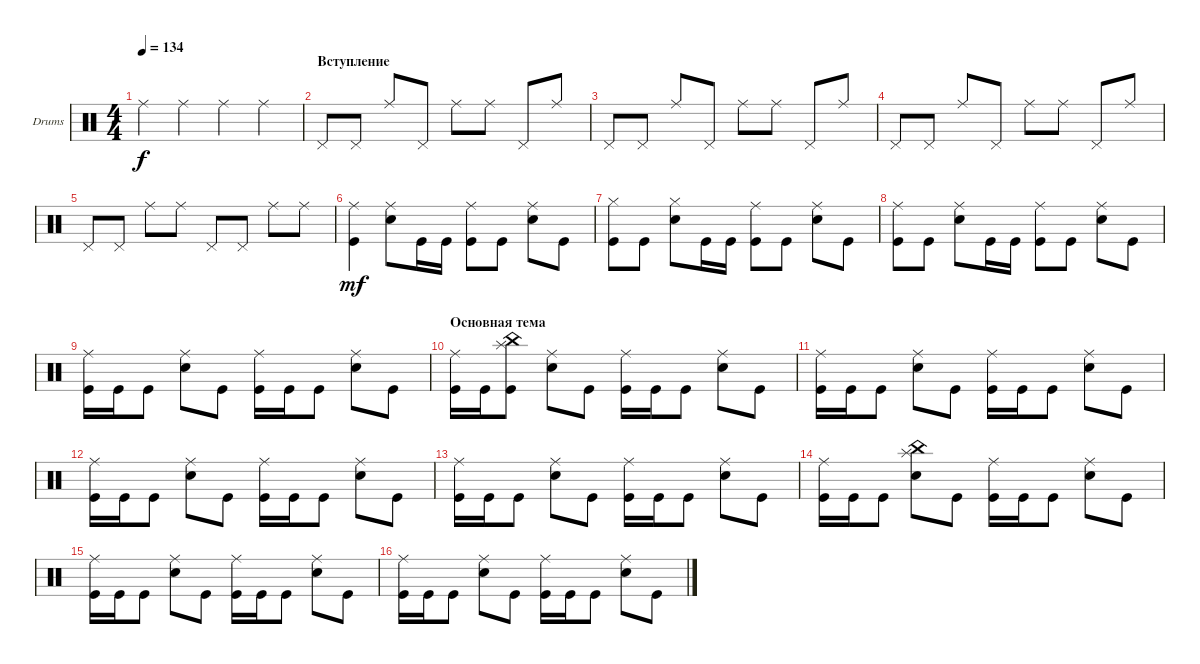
\defaultSystemsLayout 4
\bracketExtendMode groupsimilarinstruments
\firstSystemTrackNameOrientation horizontal
\otherSystemsTrackNameOrientation horizontal
\track ("Drumkit" "Drums") {instrument percussion}
\staff {score}
\articulation defaults
\ts (4 4)
\tempo 134
\clef neutral
\ks c "Ride (middle)".4{dy f} "Ride (middle)".4 "Ride (middle)".4 "Ride (middle)".4
|
\section ("" "Вступление")
"Pedal Hi-Hat (hit)".8 "Pedal Hi-Hat (hit)".8 "Ride (middle)".8 "Pedal Hi-Hat (hit)".8 "Ride (middle)".8 "Ride (middle)".8 "Pedal Hi-Hat (hit)".8 "Ride (middle)".8 |
"Pedal Hi-Hat (hit)".8 "Pedal Hi-Hat (hit)".8 "Ride (middle)".8 "Pedal Hi-Hat (hit)".8 "Ride (middle)".8 "Ride (middle)".8 "Pedal Hi-Hat (hit)".8 "Ride (middle)".8 |
"Pedal Hi-Hat (hit)".8 "Pedal Hi-Hat (hit)".8 "Ride (middle)".8 "Pedal Hi-Hat (hit)".8 "Ride (middle)".8 "Ride (middle)".8 "Pedal Hi-Hat (hit)".8 "Ride (middle)".8 |
"Pedal Hi-Hat (hit)".8 "Pedal Hi-Hat (hit)".8 "Ride (middle)".8 "Ride (middle)".8 "Pedal Hi-Hat (hit)".8 "Pedal Hi-Hat (hit)".8 "Ride (middle)".8 "Ride (middle)".8 |
("Kick (hit)" "Ride (middle)").4{dy mf} ("Snare (hit) 2" "Ride (middle)").8 "Kick (hit)".16 "Kick (hit)".16 ("Kick (hit)" "Ride (middle)").8 "Kick (hit)".8 ("Snare (hit) 2" "Ride (middle)").8 "Kick (hit)".8 |
("Kick (hit)" "Hi-Hat (closed)").8 "Kick (hit)".8 ("Snare (hit) 2" "Hi-Hat (closed)").8 "Kick (hit)".16 "Kick (hit)".16 ("Kick (hit)" "Ride (middle)").8 "Kick (hit)".8 ("Snare (hit) 2" "Ride (middle)").8 "Kick (hit)".8 |
("Kick (hit)" "Ride (middle)").8 "Kick (hit)".8 ("Snare (hit) 2" "Ride (middle)").8 "Kick (hit)".16 "Kick (hit)".16 ("Kick (hit)" "Ride (middle)").8 "Kick (hit)".8 ("Snare (hit) 2" "Ride (middle)").8 "Kick (hit)".8 |
("Kick (hit)" "Ride (middle)").16 "Kick (hit)".16 "Kick (hit)".8 ("Snare (hit) 2" "Ride (middle)").8 "Kick (hit)".8 ("Kick (hit)" "Ride (middle)").16 "Kick (hit)".16 "Kick (hit)".8 ("Snare (hit) 2" "Ride (middle)").8 "Kick (hit)".8 |
\section ("" "Основная тема")
("Kick (hit)" "Ride (middle)").16 "Kick (hit)".16 ("Kick (hit)" "China (hit)" "Splash (hit)").8 ("Snare (hit) 2" "Ride (middle)").8 "Kick (hit)".8 ("Kick (hit)" "Ride (middle)").16 "Kick (hit)".16 "Kick (hit)".8 ("Snare (hit) 2" "Ride (middle)").8 "Kick (hit)".8 |
("Kick (hit)" "Ride (middle)").16 "Kick (hit)".16 "Kick (hit)".8 ("Snare (hit) 2" "Ride (middle)").8 "Kick (hit)".8 ("Kick (hit)" "Ride (middle)").16 "Kick (hit)".16 "Kick (hit)".8 ("Snare (hit) 2" "Ride (middle)").8 "Kick (hit)".8 |
("Kick (hit)" "Ride (middle)").16 "Kick (hit)".16 "Kick (hit)".8 ("Snare (hit) 2" "Ride (middle)").8 "Kick (hit)".8 ("Kick (hit)" "Ride (middle)").16 "Kick (hit)".16 "Kick (hit)".8 ("Snare (hit) 2" "Ride (middle)").8 "Kick (hit)".8 |
("Kick (hit)" "Ride (middle)").16 "Kick (hit)".16 "Kick (hit)".8 ("Snare (hit) 2" "Ride (middle)").8 "Kick (hit)".8 ("Kick (hit)" "Ride (middle)").16 "Kick (hit)".16 "Kick (hit)".8 ("Snare (hit) 2" "Ride (middle)").8 "Kick (hit)".8 |
("Kick (hit)" "Ride (middle)").16 "Kick (hit)".16 "Kick (hit)".8 ("Snare (hit) 2" "China (hit)" "Splash (hit)").8 "Kick (hit)".8 ("Kick (hit)" "Ride (middle)").16 "Kick (hit)".16 "Kick (hit)".8 ("Snare (hit) 2" "Ride (middle)").8 "Kick (hit)".8 |
("Kick (hit)" "Ride (middle)").16 "Kick (hit)".16 "Kick (hit)".8 ("Snare (hit) 2" "Ride (middle)").8 "Kick (hit)".8 ("Kick (hit)" "Ride (middle)").16 "Kick (hit)".16 "Kick (hit)".8 ("Snare (hit) 2" "Ride (middle)").8 "Kick (hit)".8 |
("Kick (hit)" "Ride (middle)").16 "Kick (hit)".16 "Kick (hit)".8 ("Snare (hit) 2" "Ride (middle)").8 "Kick (hit)".8 ("Kick (hit)" "Ride (middle)").16 "Kick (hit)".16 "Kick (hit)".8 ("Snare (hit) 2" "Ride (middle)").8 "Kick (hit)".8
